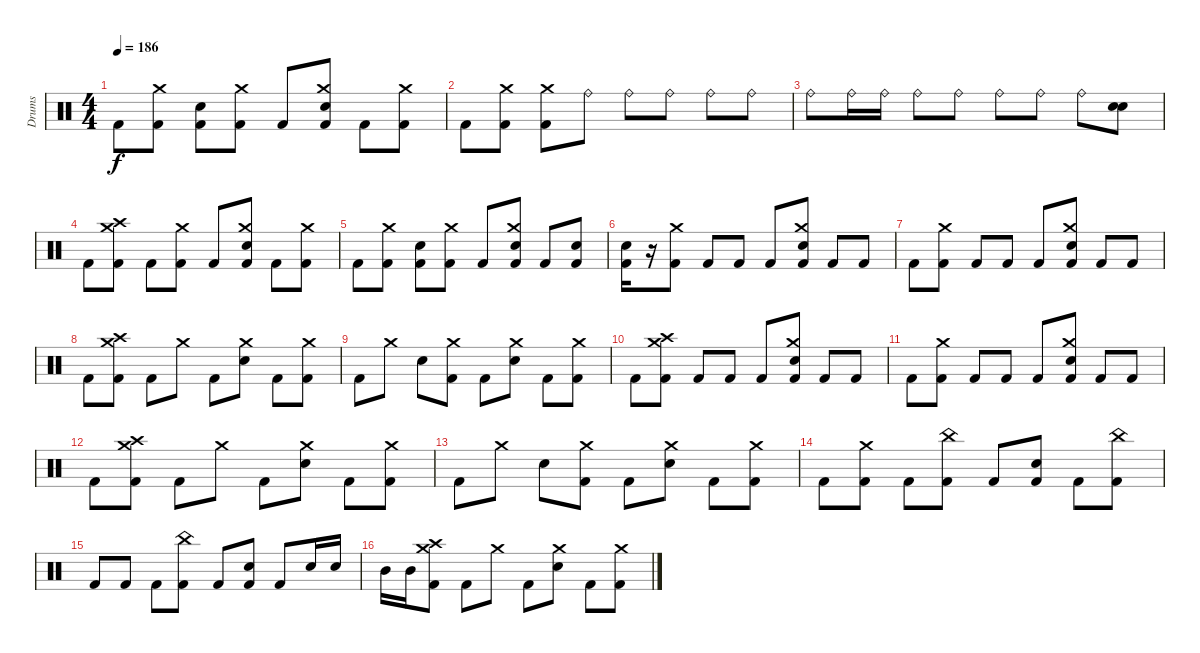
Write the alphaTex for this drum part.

\track ("Drums" "Drums") {instrument percussion bank 177}
\staff {score}
\articulation defaults
\ts (4 4)
\tempo 186
\clef neutral
\ks c "Kick (hit) 2".8{dy f}
("Crash medium (hit)" "Kick (hit) 2").8 ("Snare (hit) 2" "Kick (hit) 2").8 ("Crash medium (hit)" "Kick (hit) 2").8 "Kick (hit) 2".8 ("Crash medium (hit)" "Snare (hit) 2" "Kick (hit) 2").8 "Kick (hit) 2".8 ("Crash medium (hit)" "Kick (hit) 2").8 |
"Kick (hit) 2".8 ("Crash medium (hit)" "Kick (hit) 2").8 ("Crash medium (hit)" "Kick (hit) 2").8 "Ride (bell)".8 "Ride (bell)".8 "Ride (bell)".8 "Ride (bell)".8 "Ride (bell)".8 |
"Ride (bell)".8 "Ride (bell)".16 "Ride (bell)".16 "Ride (bell)".8 "Ride (bell)".8 "Ride (bell)".8 "Ride (bell)".8 "Ride (bell)".8 ("Snare (hit) 2" "Snare (hit) 2").8 |
"Kick (hit) 2".8 ("Crash high (hit)" "Crash medium (hit)" "Kick (hit) 2").8 "Kick (hit) 2".8 ("Crash medium (hit)" "Kick (hit) 2").8 "Kick (hit) 2".8 ("Crash medium (hit)" "Snare (hit) 2" "Kick (hit) 2").8 "Kick (hit) 2".8 ("Crash medium (hit)" "Kick (hit) 2").8 |
"Kick (hit) 2".8 ("Crash medium (hit)" "Kick (hit) 2").8 ("Snare (hit) 2" "Kick (hit) 2").8 ("Crash medium (hit)" "Kick (hit) 2").8 "Kick (hit) 2".8 ("Crash medium (hit)" "Snare (hit) 2" "Kick (hit) 2").8 "Kick (hit) 2".8 ("Snare (hit) 2" "Kick (hit) 2").8 |
("Snare (hit) 2" "Kick (hit) 2").16 r.16 ("Crash medium (hit)" "Kick (hit) 2").8 "Kick (hit) 2".8 "Kick (hit) 2".8 "Kick (hit) 2".8 ("Crash medium (hit)" "Snare (hit) 2" "Kick (hit) 2").8 "Kick (hit) 2".8 "Kick (hit) 2".8 |
"Kick (hit) 2".8 ("Crash medium (hit)" "Kick (hit) 2").8 "Kick (hit) 2".8 "Kick (hit) 2".8 "Kick (hit) 2".8 ("Crash medium (hit)" "Snare (hit) 2" "Kick (hit) 2").8 "Kick (hit) 2".8 "Kick (hit) 2".8 |
"Kick (hit) 2".8 ("Crash high (hit)" "Crash medium (hit)" "Kick (hit) 2").8 "Kick (hit) 2".8 "Crash medium (hit)".8 "Kick (hit) 2".8 ("Crash medium (hit)" "Snare (hit) 2").8 "Kick (hit) 2".8 ("Crash medium (hit)" "Kick (hit) 2").8 |
"Kick (hit) 2".8 "Crash medium (hit)".8 "Snare (hit) 2".8 ("Crash medium (hit)" "Kick (hit) 2").8 "Kick (hit) 2".8 ("Crash medium (hit)" "Snare (hit) 2").8 "Kick (hit) 2".8 ("Crash medium (hit)" "Kick (hit) 2").8 |
"Kick (hit) 2".8 ("Crash high (hit)" "Crash medium (hit)" "Kick (hit) 2").8 "Kick (hit) 2".8 "Kick (hit) 2".8 "Kick (hit) 2".8 ("Crash medium (hit)" "Snare (hit) 2" "Kick (hit) 2").8 "Kick (hit) 2".8 "Kick (hit) 2".8 |
"Kick (hit) 2".8 ("Crash medium (hit)" "Kick (hit) 2").8 "Kick (hit) 2".8 "Kick (hit) 2".8 "Kick (hit) 2".8 ("Crash medium (hit)" "Snare (hit) 2" "Kick (hit) 2").8 "Kick (hit) 2".8 "Kick (hit) 2".8 |
"Kick (hit) 2".8 ("Crash high (hit)" "Crash medium (hit)" "Kick (hit) 2").8 "Kick (hit) 2".8 "Crash medium (hit)".8 "Kick (hit) 2".8 ("Crash medium (hit)" "Snare (hit) 2").8 "Kick (hit) 2".8 ("Crash medium (hit)" "Kick (hit) 2").8 |
"Kick (hit) 2".8 "Crash medium (hit)".8 "Snare (hit) 2".8 ("Crash medium (hit)" "Kick (hit) 2").8 "Kick (hit) 2".8 ("Crash medium (hit)" "Snare (hit) 2").8 "Kick (hit) 2".8 ("Crash medium (hit)" "Kick (hit) 2").8 |
"Kick (hit) 2".8 ("Crash medium (hit)" "Kick (hit) 2").8 "Kick (hit) 2".8 ("China (hit)" "Kick (hit) 2").8 "Kick (hit) 2".8 ("Snare (hit) 2" "Kick (hit) 2").8 "Kick (hit) 2".8 ("China (hit)" "Kick (hit) 2").8 |
"Kick (hit) 2".8 "Kick (hit) 2".8 "Kick (hit) 2".8 ("China (hit)" "Kick (hit) 2").8 "Kick (hit) 2".8 ("Snare (hit) 2" "Kick (hit) 2").8 "Kick (hit) 2".8 "Snare (hit) 2".16 "Snare (hit) 2".16 |
"Mid Tom (hit)".16 "Mid Tom (hit)".16 ("Crash high (hit)" "Crash medium (hit)" "Kick (hit) 2").8 "Kick (hit) 2".8 "Crash medium (hit)".8 "Kick (hit) 2".8 ("Crash medium (hit)" "Snare (hit) 2").8 "Kick (hit) 2".8 ("Crash medium (hit)" "Kick (hit) 2").8
